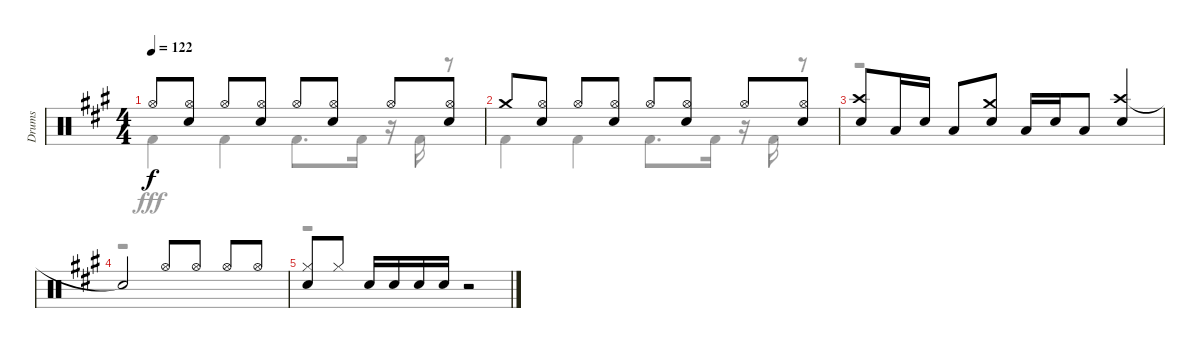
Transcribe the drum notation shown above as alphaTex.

\track ("Drums" "Drums") {instrument percussion}
\staff {score}
\articulation defaults
\voice
\ts (4 4)
\tempo 122
\clef neutral
\ks a "Hi-Hat (open)".8{dy f}
("Hi-Hat (open)" "Snare (hit) 2").8 "Hi-Hat (open)".8 ("Hi-Hat (open)" "Snare (hit) 2").8 "Hi-Hat (open)".8 ("Hi-Hat (open)" "Snare (hit) 2").8 "Hi-Hat (open)".8 ("Hi-Hat (open)" "Snare (hit) 2").8 |
"Crash medium (hit)".8 ("Hi-Hat (open)" "Snare (hit) 2").8 "Hi-Hat (open)".8 ("Hi-Hat (open)" "Snare (hit) 2").8 "Hi-Hat (open)".8 ("Hi-Hat (open)" "Snare (hit) 2").8 "Hi-Hat (open)".8 ("Hi-Hat (open)" "Snare (hit) 2").8 |
("Crash high (hit)" "Snare (hit) 2").8 "Low Tom (hit)".16 "Snare (hit) 2".16 "Low Tom (hit)".8 ("Crash medium (hit)" "Snare (hit) 2").8 "Low Tom (hit)".16 "Snare (hit) 2".16 "Low Tom (hit)".8 ("Crash high (hit)" "Snare (hit) 2").4 |
"Snare (hit)"{t}.2 "Hi-Hat (open)".8 "Hi-Hat (open)".8 "Hi-Hat (open)".8 "Hi-Hat (open)".8 |
("Hi-Hat (closed)" "Snare (hit) 2").8 "Hi-Hat (closed)".8 "Snare (hit) 2".16 "Snare (hit) 2".16 "Snare (hit) 2".16 "Snare (hit) 2".16 r.2
\voice
\clef neutral
\ottava regular
\simile none
\ks a "Kick (hit) 2".4{dy fff} "Kick (hit) 2".4 "Kick (hit) 2".8{d} "Kick (hit) 2".16
r.16 "Kick (hit) 2".16 r.8 |
"Kick (hit) 2".4 "Kick (hit) 2".4 "Kick (hit) 2".8{d} "Kick (hit) 2".16 r.16 "Kick (hit) 2".16 r.8 |
r.1 |
r.1 |
r.1
